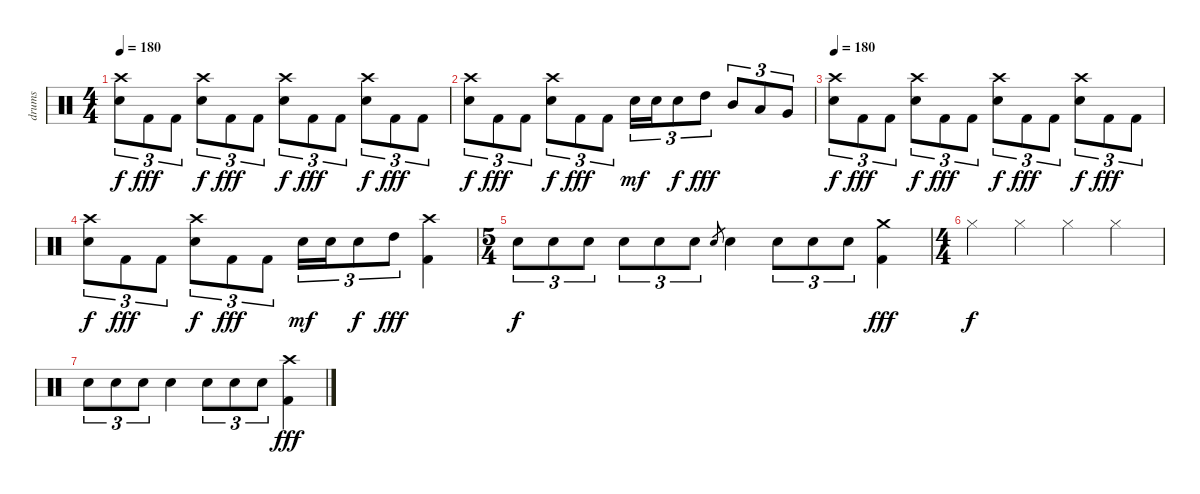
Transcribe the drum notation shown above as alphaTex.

\track ("drums" "drums") {instrument percussion}
\staff {score}
\articulation defaults
\ts (4 4)
\tempo 180
\clef neutral
\ks c
("Crash high (hit)" "Snare (hit) 2").8{tu (3 2) dy f} "Kick (hit) 2".8{tu (3 2) dy fff} "Kick (hit) 2".8{tu (3 2)} ("Crash high (hit)" "Snare (hit) 2").8{tu (3 2) dy f} "Kick (hit) 2".8{tu (3 2) dy fff} "Kick (hit) 2".8{tu (3 2)} ("Crash high (hit)" "Snare (hit) 2").8{tu (3 2) dy f} "Kick (hit) 2".8{tu (3 2) dy fff} "Kick (hit) 2".8{tu (3 2)} ("Crash high (hit)" "Snare (hit) 2").8{tu (3 2) dy f} "Kick (hit) 2".8{tu (3 2) dy fff} "Kick (hit) 2".8{tu (3 2)} |
("Crash high (hit)" "Snare (hit) 2").8{tu (3 2) dy f} "Kick (hit) 2".8{tu (3 2) dy fff} "Kick (hit) 2".8{tu (3 2)} ("Crash high (hit)" "Snare (hit) 2").8{tu (3 2) dy f} "Kick (hit) 2".8{tu (3 2) dy fff} "Kick (hit) 2".8{tu (3 2)} "Snare (hit) 2".16{tu (3 2) dy mf} "Snare (hit) 2".16{tu (3 2)} "Snare (hit) 2".8{tu (3 2) dy f} "High Tom (hit)".8{tu (3 2) dy fff} "Mid Tom (hit)".8{tu (3 2)} "Low Tom (hit)".8{tu (3 2)} "Very Low Tom (hit)".8{tu (3 2)} |
\tempo 180
("Crash high (hit)" "Snare (hit) 2").8{tu (3 2) dy f} "Kick (hit) 2".8{tu (3 2) dy fff} "Kick (hit) 2".8{tu (3 2)} ("Crash high (hit)" "Snare (hit) 2").8{tu (3 2) dy f} "Kick (hit) 2".8{tu (3 2) dy fff} "Kick (hit) 2".8{tu (3 2)} ("Crash high (hit)" "Snare (hit) 2").8{tu (3 2) dy f} "Kick (hit) 2".8{tu (3 2) dy fff} "Kick (hit) 2".8{tu (3 2)} ("Crash high (hit)" "Snare (hit) 2").8{tu (3 2) dy f} "Kick (hit) 2".8{tu (3 2) dy fff} "Kick (hit) 2".8{tu (3 2)} |
("Crash high (hit)" "Snare (hit) 2").8{tu (3 2) dy f} "Kick (hit) 2".8{tu (3 2) dy fff} "Kick (hit) 2".8{tu (3 2)} ("Crash high (hit)" "Snare (hit) 2").8{tu (3 2) dy f} "Kick (hit) 2".8{tu (3 2) dy fff} "Kick (hit) 2".8{tu (3 2)} "Snare (hit) 2".16{tu (3 2) dy mf} "Snare (hit) 2".16{tu (3 2)} "Snare (hit) 2".8{tu (3 2) dy f} "High Tom (hit)".8{tu (3 2) dy fff} ("Crash high (hit)" "Kick (hit) 2").4 |
\ts (5 4)
"Snare (hit) 2".8{tu (3 2) dy f} "Snare (hit) 2".8{tu (3 2)} "Snare (hit) 2".8{tu (3 2)} "Snare (hit) 2".8{tu (3 2)} "Snare (hit) 2".8{tu (3 2)} "Snare (hit) 2".8{tu (3 2)} "Snare (hit) 2".8{gr} "Snare (hit) 2".4 "Snare (hit) 2".8{tu (3 2)} "Snare (hit) 2".8{tu (3 2)} "Snare (hit) 2".8{tu (3 2)} ("Crash medium (hit)" "Kick (hit) 2").4{dy fff} |
\ts (4 4)
"Hi-Hat (closed)".4{dy f} "Hi-Hat (closed)".4 "Hi-Hat (closed)".4 "Hi-Hat (closed)".4 |
"Snare (hit) 2".8{tu (3 2)} "Snare (hit) 2".8{tu (3 2)} "Snare (hit) 2".8{tu (3 2)} "Snare (hit) 2".4 "Snare (hit) 2".8{tu (3 2)} "Snare (hit) 2".8{tu (3 2)} "Snare (hit) 2".8{tu (3 2)} ("Crash high (hit)" "Kick (hit) 2").4{dy fff}
